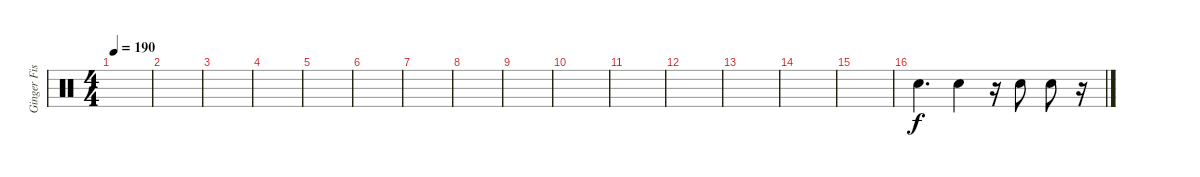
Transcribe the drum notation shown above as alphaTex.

\track ("Ginger Fish" "Ginger Fis") {instrument percussion}
\staff {score}
\articulation defaults
\ts (4 4)
\tempo 190
\clef neutral
\ks c
|
|
|
|
|
|
|
|
|
|
|
|
|
|
|
"Electric Snare (hit)".4{d} "Electric Snare (hit)".4 r.16 "Electric Snare (hit)".8 "Electric Snare (hit)".8 r.16
